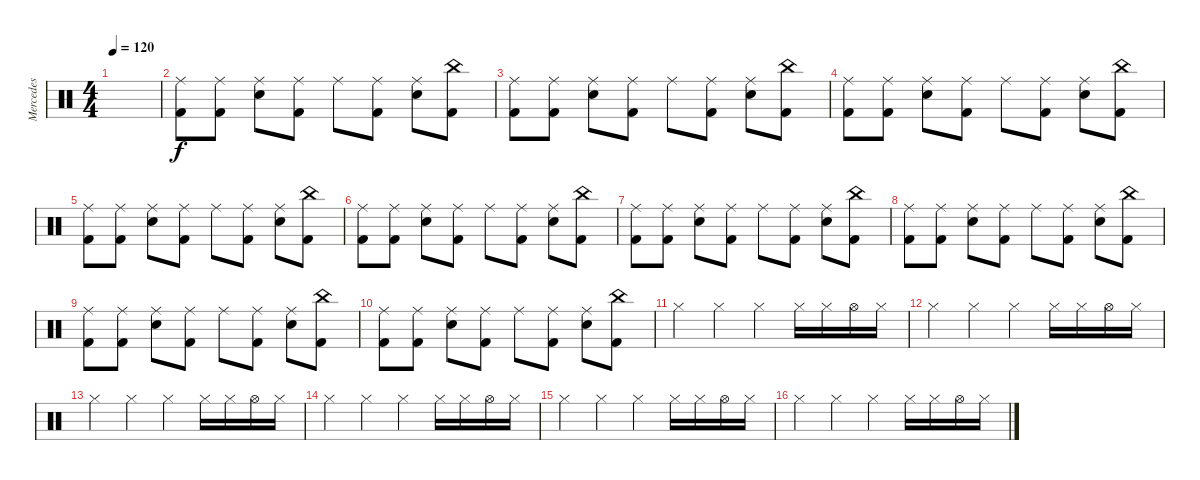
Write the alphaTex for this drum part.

\track ("Mercedes" "Mercedes") {instrument percussion}
\staff {score}
\articulation defaults
\ts (4 4)
\tempo 120
\clef neutral
\ks c
|
("Ride (middle)" "Kick (hit) 2").8 ("Ride (middle)" "Kick (hit) 2").8 ("Ride (middle)" "Snare (hit) 2").8 ("Ride (middle)" "Kick (hit) 2").8 "Ride (middle)".8 ("Ride (middle)" "Kick (hit) 2").8 ("Ride (middle)" "Snare (hit) 2").8 ("China (hit)" "Kick (hit) 2").8 |
("Ride (middle)" "Kick (hit) 2").8 ("Ride (middle)" "Kick (hit) 2").8 ("Ride (middle)" "Snare (hit) 2").8 ("Ride (middle)" "Kick (hit) 2").8 "Ride (middle)".8 ("Ride (middle)" "Kick (hit) 2").8 ("Ride (middle)" "Snare (hit) 2").8 ("China (hit)" "Kick (hit) 2").8 |
("Ride (middle)" "Kick (hit) 2").8 ("Ride (middle)" "Kick (hit) 2").8 ("Ride (middle)" "Snare (hit) 2").8 ("Ride (middle)" "Kick (hit) 2").8 "Ride (middle)".8 ("Ride (middle)" "Kick (hit) 2").8 ("Ride (middle)" "Snare (hit) 2").8 ("China (hit)" "Kick (hit) 2").8 |
("Ride (middle)" "Kick (hit) 2").8 ("Ride (middle)" "Kick (hit) 2").8 ("Ride (middle)" "Snare (hit) 2").8 ("Ride (middle)" "Kick (hit) 2").8 "Ride (middle)".8 ("Ride (middle)" "Kick (hit) 2").8 ("Ride (middle)" "Snare (hit) 2").8 ("China (hit)" "Kick (hit) 2").8 |
("Ride (middle)" "Kick (hit) 2").8 ("Ride (middle)" "Kick (hit) 2").8 ("Ride (middle)" "Snare (hit) 2").8 ("Ride (middle)" "Kick (hit) 2").8 "Ride (middle)".8 ("Ride (middle)" "Kick (hit) 2").8 ("Ride (middle)" "Snare (hit) 2").8 ("China (hit)" "Kick (hit) 2").8 |
("Ride (middle)" "Kick (hit) 2").8 ("Ride (middle)" "Kick (hit) 2").8 ("Ride (middle)" "Snare (hit) 2").8 ("Ride (middle)" "Kick (hit) 2").8 "Ride (middle)".8 ("Ride (middle)" "Kick (hit) 2").8 ("Ride (middle)" "Snare (hit) 2").8 ("China (hit)" "Kick (hit) 2").8 |
("Ride (middle)" "Kick (hit) 2").8 ("Ride (middle)" "Kick (hit) 2").8 ("Ride (middle)" "Snare (hit) 2").8 ("Ride (middle)" "Kick (hit) 2").8 "Ride (middle)".8 ("Ride (middle)" "Kick (hit) 2").8 ("Ride (middle)" "Snare (hit) 2").8 ("China (hit)" "Kick (hit) 2").8 |
("Ride (middle)" "Kick (hit) 2").8 ("Ride (middle)" "Kick (hit) 2").8 ("Ride (middle)" "Snare (hit) 2").8 ("Ride (middle)" "Kick (hit) 2").8 "Ride (middle)".8 ("Ride (middle)" "Kick (hit) 2").8 ("Ride (middle)" "Snare (hit) 2").8 ("China (hit)" "Kick (hit) 2").8 |
("Ride (middle)" "Kick (hit) 2").8 ("Ride (middle)" "Kick (hit) 2").8 ("Ride (middle)" "Snare (hit) 2").8 ("Ride (middle)" "Kick (hit) 2").8 "Ride (middle)".8 ("Ride (middle)" "Kick (hit) 2").8 ("Ride (middle)" "Snare (hit) 2").8 ("China (hit)" "Kick (hit) 2").8 |
"Hi-Hat (closed)".4 "Hi-Hat (closed)".4 "Hi-Hat (closed)".4 "Hi-Hat (closed)".16 "Hi-Hat (closed)".16 "Hi-Hat (open)".16 "Hi-Hat (closed)".16 |
"Hi-Hat (closed)".4 "Hi-Hat (closed)".4 "Hi-Hat (closed)".4 "Hi-Hat (closed)".16 "Hi-Hat (closed)".16 "Hi-Hat (open)".16 "Hi-Hat (closed)".16 |
"Hi-Hat (closed)".4 "Hi-Hat (closed)".4 "Hi-Hat (closed)".4 "Hi-Hat (closed)".16 "Hi-Hat (closed)".16 "Hi-Hat (open)".16 "Hi-Hat (closed)".16 |
"Hi-Hat (closed)".4 "Hi-Hat (closed)".4 "Hi-Hat (closed)".4 "Hi-Hat (closed)".16 "Hi-Hat (closed)".16 "Hi-Hat (open)".16 "Hi-Hat (closed)".16 |
"Hi-Hat (closed)".4 "Hi-Hat (closed)".4 "Hi-Hat (closed)".4 "Hi-Hat (closed)".16 "Hi-Hat (closed)".16 "Hi-Hat (open)".16 "Hi-Hat (closed)".16 |
"Hi-Hat (closed)".4 "Hi-Hat (closed)".4 "Hi-Hat (closed)".4 "Hi-Hat (closed)".16 "Hi-Hat (closed)".16 "Hi-Hat (open)".16 "Hi-Hat (closed)".16
